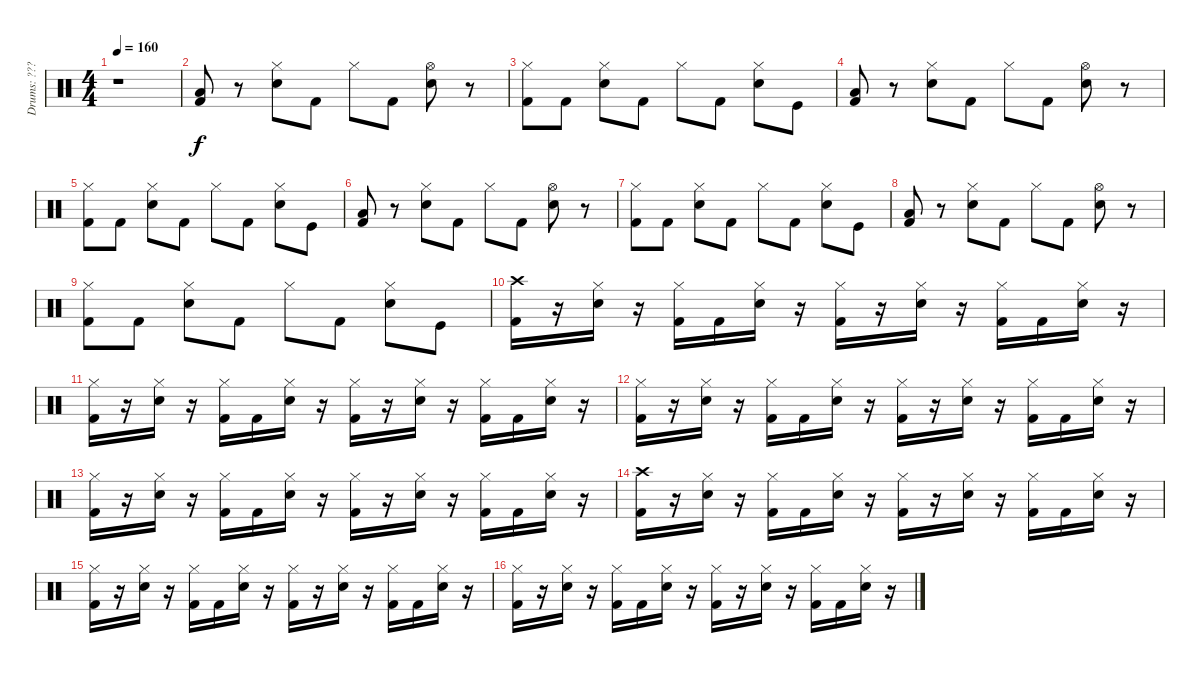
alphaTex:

\track ("Drums: ???" "Drums: ???") {instrument percussion}
\staff {score}
\articulation defaults
\ts (4 4)
\tempo 160
\clef neutral
\ks c
r.1{dy f} |
("Low Floor Tom (hit)" "Kick (hit) 2").8 r.8 ("Hi-Hat (closed)" "Snare (hit) 2").8 "Kick (hit) 2".8 "Hi-Hat (closed)".8 "Kick (hit) 2".8 ("Hi-Hat (open)" "Snare (hit) 2").8 r.8 |
("Hi-Hat (closed)" "Kick (hit) 2").8 "Kick (hit) 2".8 ("Hi-Hat (closed)" "Snare (hit) 2").8 "Kick (hit) 2".8 "Hi-Hat (closed)".8 "Kick (hit) 2".8 ("Hi-Hat (closed)" "Snare (hit) 2").8 "Kick (hit)".8 |
("Low Floor Tom (hit)" "Kick (hit) 2").8 r.8 ("Hi-Hat (closed)" "Snare (hit) 2").8 "Kick (hit) 2".8 "Hi-Hat (closed)".8 "Kick (hit) 2".8 ("Hi-Hat (open)" "Snare (hit) 2").8 r.8 |
("Hi-Hat (closed)" "Kick (hit) 2").8 "Kick (hit) 2".8 ("Hi-Hat (closed)" "Snare (hit) 2").8 "Kick (hit) 2".8 "Hi-Hat (closed)".8 "Kick (hit) 2".8 ("Hi-Hat (closed)" "Snare (hit) 2").8 "Kick (hit)".8 |
("Low Floor Tom (hit)" "Kick (hit) 2").8 r.8 ("Hi-Hat (closed)" "Snare (hit) 2").8 "Kick (hit) 2".8 "Hi-Hat (closed)".8 "Kick (hit) 2".8 ("Hi-Hat (open)" "Snare (hit) 2").8 r.8 |
("Hi-Hat (closed)" "Kick (hit) 2").8 "Kick (hit) 2".8 ("Hi-Hat (closed)" "Snare (hit) 2").8 "Kick (hit) 2".8 "Hi-Hat (closed)".8 "Kick (hit) 2".8 ("Hi-Hat (closed)" "Snare (hit) 2").8 "Kick (hit)".8 |
("Low Floor Tom (hit)" "Kick (hit) 2").8 r.8 ("Hi-Hat (closed)" "Snare (hit) 2").8 "Kick (hit) 2".8 "Hi-Hat (closed)".8 "Kick (hit) 2".8 ("Hi-Hat (open)" "Snare (hit) 2").8 r.8 |
("Hi-Hat (closed)" "Kick (hit) 2").8 "Kick (hit) 2".8 ("Hi-Hat (closed)" "Snare (hit) 2").8 "Kick (hit) 2".8 "Hi-Hat (closed)".8 "Kick (hit) 2".8 ("Hi-Hat (closed)" "Snare (hit) 2").8 "Kick (hit)".8 |
("Kick (hit) 2" "Crash high (hit)").16 r.16 ("Snare (hit) 2" "Hi-Hat (closed)").16 r.16 ("Kick (hit) 2" "Hi-Hat (closed)").16 "Kick (hit) 2".16 ("Snare (hit) 2" "Hi-Hat (closed)").16 r.16 ("Kick (hit) 2" "Hi-Hat (closed)").16 r.16 ("Snare (hit) 2" "Hi-Hat (closed)").16 r.16 ("Kick (hit) 2" "Hi-Hat (closed)").16 "Kick (hit) 2".16 ("Snare (hit) 2" "Hi-Hat (closed)").16 r.16 |
("Kick (hit) 2" "Hi-Hat (closed)").16 r.16 ("Snare (hit) 2" "Hi-Hat (closed)").16 r.16 ("Kick (hit) 2" "Hi-Hat (closed)").16 "Kick (hit) 2".16 ("Snare (hit) 2" "Hi-Hat (closed)").16 r.16 ("Kick (hit) 2" "Hi-Hat (closed)").16 r.16 ("Snare (hit) 2" "Hi-Hat (closed)").16 r.16 ("Kick (hit) 2" "Hi-Hat (closed)").16 "Kick (hit) 2".16 ("Snare (hit) 2" "Hi-Hat (closed)").16 r.16 |
("Kick (hit) 2" "Hi-Hat (closed)").16 r.16 ("Snare (hit) 2" "Hi-Hat (closed)").16 r.16 ("Kick (hit) 2" "Hi-Hat (closed)").16 "Kick (hit) 2".16 ("Snare (hit) 2" "Hi-Hat (closed)").16 r.16 ("Kick (hit) 2" "Hi-Hat (closed)").16 r.16 ("Snare (hit) 2" "Hi-Hat (closed)").16 r.16 ("Kick (hit) 2" "Hi-Hat (closed)").16 "Kick (hit) 2".16 ("Snare (hit) 2" "Hi-Hat (closed)").16 r.16 |
("Kick (hit) 2" "Hi-Hat (closed)").16 r.16 ("Snare (hit) 2" "Hi-Hat (closed)").16 r.16 ("Kick (hit) 2" "Hi-Hat (closed)").16 "Kick (hit) 2".16 ("Snare (hit) 2" "Hi-Hat (closed)").16 r.16 ("Kick (hit) 2" "Hi-Hat (closed)").16 r.16 ("Snare (hit) 2" "Hi-Hat (closed)").16 r.16 ("Kick (hit) 2" "Hi-Hat (closed)").16 "Kick (hit) 2".16 ("Snare (hit) 2" "Hi-Hat (closed)").16 r.16 |
("Kick (hit) 2" "Crash high (hit)").16 r.16 ("Snare (hit) 2" "Hi-Hat (closed)").16 r.16 ("Kick (hit) 2" "Hi-Hat (closed)").16 "Kick (hit) 2".16 ("Snare (hit) 2" "Hi-Hat (closed)").16 r.16 ("Kick (hit) 2" "Hi-Hat (closed)").16 r.16 ("Snare (hit) 2" "Hi-Hat (closed)").16 r.16 ("Kick (hit) 2" "Hi-Hat (closed)").16 "Kick (hit) 2".16 ("Snare (hit) 2" "Hi-Hat (closed)").16 r.16 |
("Kick (hit) 2" "Hi-Hat (closed)").16 r.16 ("Snare (hit) 2" "Hi-Hat (closed)").16 r.16 ("Kick (hit) 2" "Hi-Hat (closed)").16 "Kick (hit) 2".16 ("Snare (hit) 2" "Hi-Hat (closed)").16 r.16 ("Kick (hit) 2" "Hi-Hat (closed)").16 r.16 ("Snare (hit) 2" "Hi-Hat (closed)").16 r.16 ("Kick (hit) 2" "Hi-Hat (closed)").16 "Kick (hit) 2".16 ("Snare (hit) 2" "Hi-Hat (closed)").16 r.16 |
("Kick (hit) 2" "Hi-Hat (closed)").16 r.16 ("Snare (hit) 2" "Hi-Hat (closed)").16 r.16 ("Kick (hit) 2" "Hi-Hat (closed)").16 "Kick (hit) 2".16 ("Snare (hit) 2" "Hi-Hat (closed)").16 r.16 ("Kick (hit) 2" "Hi-Hat (closed)").16 r.16 ("Snare (hit) 2" "Hi-Hat (closed)").16 r.16 ("Kick (hit) 2" "Hi-Hat (closed)").16 "Kick (hit) 2".16 ("Snare (hit) 2" "Hi-Hat (closed)").16 r.16
